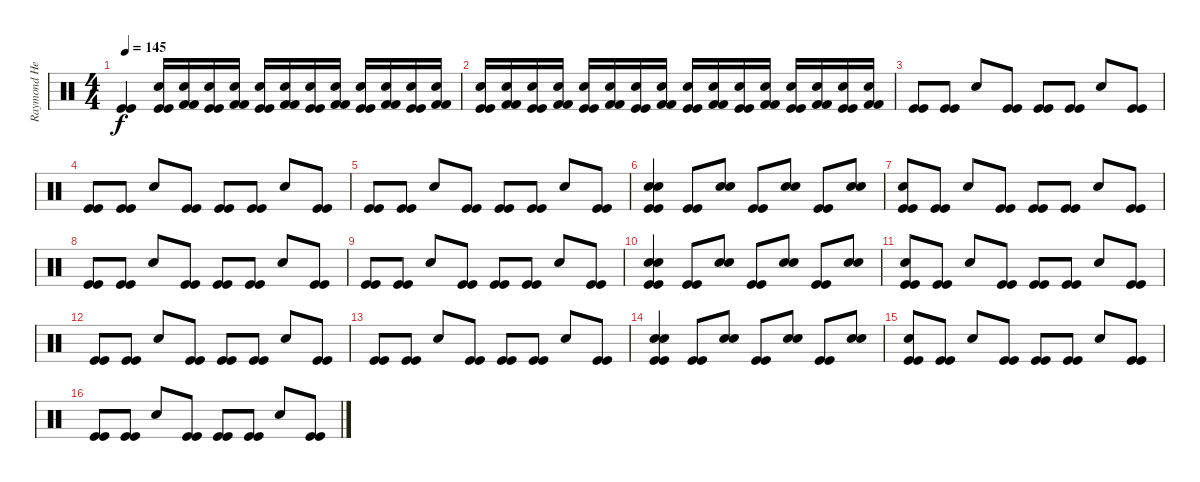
\track ("Raymond Herrera" "Raymond He") {instrument percussion}
\staff {score}
\articulation defaults
\ts (4 4)
\tempo 145
\clef neutral
\ks c
("Kick (hit)" "Kick (hit)").4{dy f} ("Electric Snare (hit)" "Kick (hit)" "Kick (hit)").16 ("Electric Snare (hit)" "Kick (hit) 2" "Kick (hit) 2").16 ("Electric Snare (hit)" "Kick (hit)" "Kick (hit)").16 ("Electric Snare (hit)" "Kick (hit) 2" "Kick (hit) 2").16 ("Electric Snare (hit)" "Kick (hit)" "Kick (hit)").16 ("Electric Snare (hit)" "Kick (hit) 2" "Kick (hit) 2").16 ("Electric Snare (hit)" "Kick (hit)" "Kick (hit)").16 ("Electric Snare (hit)" "Kick (hit) 2" "Kick (hit) 2").16 ("Electric Snare (hit)" "Kick (hit)" "Kick (hit)").16 ("Electric Snare (hit)" "Kick (hit) 2" "Kick (hit) 2").16 ("Electric Snare (hit)" "Kick (hit)" "Kick (hit)").16 ("Electric Snare (hit)" "Kick (hit) 2" "Kick (hit) 2").16 |
("Electric Snare (hit)" "Kick (hit)" "Kick (hit)").16 ("Electric Snare (hit)" "Kick (hit) 2" "Kick (hit) 2").16 ("Electric Snare (hit)" "Kick (hit)" "Kick (hit)").16 ("Electric Snare (hit)" "Kick (hit) 2" "Kick (hit) 2").16 ("Electric Snare (hit)" "Kick (hit)" "Kick (hit)").16 ("Electric Snare (hit)" "Kick (hit) 2" "Kick (hit) 2").16 ("Electric Snare (hit)" "Kick (hit)" "Kick (hit)").16 ("Electric Snare (hit)" "Kick (hit) 2" "Kick (hit) 2").16 ("Electric Snare (hit)" "Kick (hit)" "Kick (hit)").16 ("Electric Snare (hit)" "Kick (hit) 2" "Kick (hit) 2").16 ("Electric Snare (hit)" "Kick (hit)" "Kick (hit)").16 ("Electric Snare (hit)" "Kick (hit) 2" "Kick (hit) 2").16 ("Electric Snare (hit)" "Kick (hit)" "Kick (hit)").16 ("Electric Snare (hit)" "Kick (hit) 2" "Kick (hit) 2").16 ("Electric Snare (hit)" "Kick (hit)" "Kick (hit)").16 ("Electric Snare (hit)" "Kick (hit) 2" "Kick (hit) 2").16 |
("Kick (hit)" "Kick (hit)").8 ("Kick (hit)" "Kick (hit)").8 "Electric Snare (hit)".8 ("Kick (hit)" "Kick (hit)").8 ("Kick (hit)" "Kick (hit)").8 ("Kick (hit)" "Kick (hit)").8 "Electric Snare (hit)".8 ("Kick (hit)" "Kick (hit)").8 |
("Kick (hit)" "Kick (hit)").8 ("Kick (hit)" "Kick (hit)").8 "Electric Snare (hit)".8 ("Kick (hit)" "Kick (hit)").8 ("Kick (hit)" "Kick (hit)").8 ("Kick (hit)" "Kick (hit)").8 "Electric Snare (hit)".8 ("Kick (hit)" "Kick (hit)").8 |
("Kick (hit)" "Kick (hit)").8 ("Kick (hit)" "Kick (hit)").8 "Electric Snare (hit)".8 ("Kick (hit)" "Kick (hit)").8 ("Kick (hit)" "Kick (hit)").8 ("Kick (hit)" "Kick (hit)").8 "Electric Snare (hit)".8 ("Kick (hit)" "Kick (hit)").8 |
("Electric Snare (hit)" "Electric Snare (hit)" "Kick (hit)" "Kick (hit)").4 ("Kick (hit)" "Kick (hit)").8 ("Electric Snare (hit)" "Electric Snare (hit)").8 ("Kick (hit)" "Kick (hit)").8 ("Electric Snare (hit)" "Electric Snare (hit)").8 ("Kick (hit)" "Kick (hit)").8 ("Electric Snare (hit)" "Electric Snare (hit)").8 |
("Electric Snare (hit)" "Kick (hit)" "Kick (hit)").8 ("Kick (hit)" "Kick (hit)").8 "Electric Snare (hit)".8 ("Kick (hit)" "Kick (hit)").8 ("Kick (hit)" "Kick (hit)").8 ("Kick (hit)" "Kick (hit)").8 "Electric Snare (hit)".8 ("Kick (hit)" "Kick (hit)").8 |
("Kick (hit)" "Kick (hit)").8 ("Kick (hit)" "Kick (hit)").8 "Electric Snare (hit)".8 ("Kick (hit)" "Kick (hit)").8 ("Kick (hit)" "Kick (hit)").8 ("Kick (hit)" "Kick (hit)").8 "Electric Snare (hit)".8 ("Kick (hit)" "Kick (hit)").8 |
("Kick (hit)" "Kick (hit)").8 ("Kick (hit)" "Kick (hit)").8 "Electric Snare (hit)".8 ("Kick (hit)" "Kick (hit)").8 ("Kick (hit)" "Kick (hit)").8 ("Kick (hit)" "Kick (hit)").8 "Electric Snare (hit)".8 ("Kick (hit)" "Kick (hit)").8 |
("Electric Snare (hit)" "Electric Snare (hit)" "Kick (hit)" "Kick (hit)").4 ("Kick (hit)" "Kick (hit)").8 ("Electric Snare (hit)" "Electric Snare (hit)").8 ("Kick (hit)" "Kick (hit)").8 ("Electric Snare (hit)" "Electric Snare (hit)").8 ("Kick (hit)" "Kick (hit)").8 ("Electric Snare (hit)" "Electric Snare (hit)").8 |
("Electric Snare (hit)" "Kick (hit)" "Kick (hit)").8 ("Kick (hit)" "Kick (hit)").8 "Electric Snare (hit)".8 ("Kick (hit)" "Kick (hit)").8 ("Kick (hit)" "Kick (hit)").8 ("Kick (hit)" "Kick (hit)").8 "Electric Snare (hit)".8 ("Kick (hit)" "Kick (hit)").8 |
("Kick (hit)" "Kick (hit)").8 ("Kick (hit)" "Kick (hit)").8 "Electric Snare (hit)".8 ("Kick (hit)" "Kick (hit)").8 ("Kick (hit)" "Kick (hit)").8 ("Kick (hit)" "Kick (hit)").8 "Electric Snare (hit)".8 ("Kick (hit)" "Kick (hit)").8 |
("Kick (hit)" "Kick (hit)").8 ("Kick (hit)" "Kick (hit)").8 "Electric Snare (hit)".8 ("Kick (hit)" "Kick (hit)").8 ("Kick (hit)" "Kick (hit)").8 ("Kick (hit)" "Kick (hit)").8 "Electric Snare (hit)".8 ("Kick (hit)" "Kick (hit)").8 |
("Electric Snare (hit)" "Electric Snare (hit)" "Kick (hit)" "Kick (hit)").4 ("Kick (hit)" "Kick (hit)").8 ("Electric Snare (hit)" "Electric Snare (hit)").8 ("Kick (hit)" "Kick (hit)").8 ("Electric Snare (hit)" "Electric Snare (hit)").8 ("Kick (hit)" "Kick (hit)").8 ("Electric Snare (hit)" "Electric Snare (hit)").8 |
("Electric Snare (hit)" "Kick (hit)" "Kick (hit)").8 ("Kick (hit)" "Kick (hit)").8 "Electric Snare (hit)".8 ("Kick (hit)" "Kick (hit)").8 ("Kick (hit)" "Kick (hit)").8 ("Kick (hit)" "Kick (hit)").8 "Electric Snare (hit)".8 ("Kick (hit)" "Kick (hit)").8 |
("Kick (hit)" "Kick (hit)").8 ("Kick (hit)" "Kick (hit)").8 "Electric Snare (hit)".8 ("Kick (hit)" "Kick (hit)").8 ("Kick (hit)" "Kick (hit)").8 ("Kick (hit)" "Kick (hit)").8 "Electric Snare (hit)".8 ("Kick (hit)" "Kick (hit)").8
